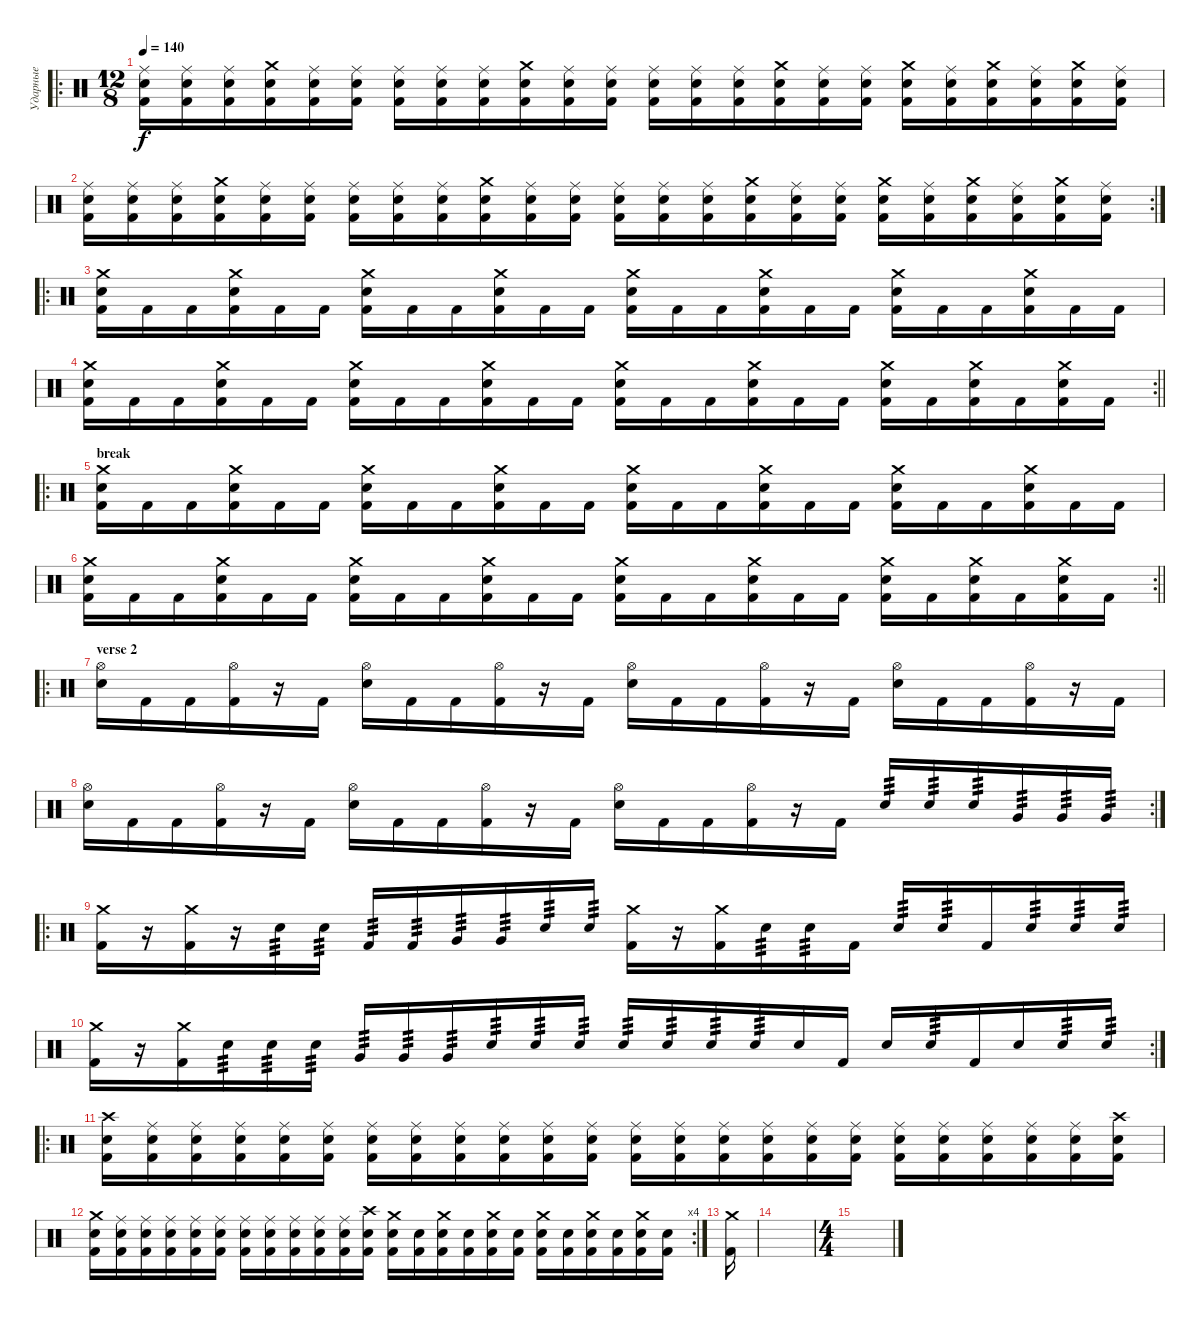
\track ("Ударные" "Ударные") {instrument percussion}
\staff {score}
\articulation defaults
\ro
\ts (12 8)
\tempo 140
\clef neutral
\ks c
("Ride (middle)" "Electric Snare (hit)" "Kick (hit) 2").16{dy f} ("Ride (middle)" "Electric Snare (hit)" "Kick (hit) 2").16 ("Ride (middle)" "Electric Snare (hit)" "Kick (hit) 2").16 ("Crash medium (hit)" "Electric Snare (hit)" "Kick (hit) 2").16 ("Ride (middle)" "Electric Snare (hit)" "Kick (hit) 2").16 ("Ride (middle)" "Electric Snare (hit)" "Kick (hit) 2").16 ("Ride (middle)" "Electric Snare (hit)" "Kick (hit) 2").16 ("Ride (middle)" "Electric Snare (hit)" "Kick (hit) 2").16 ("Ride (middle)" "Electric Snare (hit)" "Kick (hit) 2").16 ("Crash medium (hit)" "Electric Snare (hit)" "Kick (hit) 2").16 ("Ride (middle)" "Electric Snare (hit)" "Kick (hit) 2").16 ("Ride (middle)" "Electric Snare (hit)" "Kick (hit) 2").16 ("Ride (middle)" "Electric Snare (hit)" "Kick (hit) 2").16 ("Ride (middle)" "Electric Snare (hit)" "Kick (hit) 2").16 ("Ride (middle)" "Electric Snare (hit)" "Kick (hit) 2").16 ("Crash medium (hit)" "Electric Snare (hit)" "Kick (hit) 2").16 ("Ride (middle)" "Electric Snare (hit)" "Kick (hit) 2").16 ("Ride (middle)" "Electric Snare (hit)" "Kick (hit) 2").16 ("Crash medium (hit)" "Electric Snare (hit)" "Kick (hit) 2").16 ("Ride (middle)" "Electric Snare (hit)" "Kick (hit) 2").16 ("Crash medium (hit)" "Electric Snare (hit)" "Kick (hit) 2").16 ("Ride (middle)" "Electric Snare (hit)" "Kick (hit) 2").16 ("Crash medium (hit)" "Electric Snare (hit)" "Kick (hit) 2").16 ("Ride (middle)" "Electric Snare (hit)" "Kick (hit) 2").16 |
\rc 2
("Ride (middle)" "Electric Snare (hit)" "Kick (hit) 2").16 ("Ride (middle)" "Electric Snare (hit)" "Kick (hit) 2").16 ("Ride (middle)" "Electric Snare (hit)" "Kick (hit) 2").16 ("Crash medium (hit)" "Electric Snare (hit)" "Kick (hit) 2").16 ("Ride (middle)" "Electric Snare (hit)" "Kick (hit) 2").16 ("Ride (middle)" "Electric Snare (hit)" "Kick (hit) 2").16 ("Ride (middle)" "Electric Snare (hit)" "Kick (hit) 2").16 ("Ride (middle)" "Electric Snare (hit)" "Kick (hit) 2").16 ("Ride (middle)" "Electric Snare (hit)" "Kick (hit) 2").16 ("Crash medium (hit)" "Electric Snare (hit)" "Kick (hit) 2").16 ("Ride (middle)" "Electric Snare (hit)" "Kick (hit) 2").16 ("Ride (middle)" "Electric Snare (hit)" "Kick (hit) 2").16 ("Ride (middle)" "Electric Snare (hit)" "Kick (hit) 2").16 ("Ride (middle)" "Electric Snare (hit)" "Kick (hit) 2").16 ("Ride (middle)" "Electric Snare (hit)" "Kick (hit) 2").16 ("Crash medium (hit)" "Electric Snare (hit)" "Kick (hit) 2").16 ("Ride (middle)" "Electric Snare (hit)" "Kick (hit) 2").16 ("Ride (middle)" "Electric Snare (hit)" "Kick (hit) 2").16 ("Crash medium (hit)" "Electric Snare (hit)" "Kick (hit) 2").16 ("Ride (middle)" "Electric Snare (hit)" "Kick (hit) 2").16 ("Crash medium (hit)" "Electric Snare (hit)" "Kick (hit) 2").16 ("Ride (middle)" "Electric Snare (hit)" "Kick (hit) 2").16 ("Crash medium (hit)" "Electric Snare (hit)" "Kick (hit) 2").16 ("Ride (middle)" "Electric Snare (hit)" "Kick (hit) 2").16 |
\ro
("Crash medium (hit)" "Electric Snare (hit)" "Kick (hit) 2").16 "Kick (hit) 2".16 "Kick (hit) 2".16 ("Crash medium (hit)" "Electric Snare (hit)" "Kick (hit) 2").16 "Kick (hit) 2".16 "Kick (hit) 2".16 ("Crash medium (hit)" "Electric Snare (hit)" "Kick (hit) 2").16 "Kick (hit) 2".16 "Kick (hit) 2".16 ("Crash medium (hit)" "Electric Snare (hit)" "Kick (hit) 2").16 "Kick (hit) 2".16 "Kick (hit) 2".16 ("Crash medium (hit)" "Electric Snare (hit)" "Kick (hit) 2").16 "Kick (hit) 2".16 "Kick (hit) 2".16 ("Crash medium (hit)" "Electric Snare (hit)" "Kick (hit) 2").16 "Kick (hit) 2".16 "Kick (hit) 2".16 ("Crash medium (hit)" "Electric Snare (hit)" "Kick (hit) 2").16 "Kick (hit) 2".16 "Kick (hit) 2".16 ("Crash medium (hit)" "Electric Snare (hit)" "Kick (hit) 2").16 "Kick (hit) 2".16 "Kick (hit) 2".16 |
\rc 2
\barLineRight lightlight
("Crash medium (hit)" "Electric Snare (hit)" "Kick (hit) 2").16 "Kick (hit) 2".16 "Kick (hit) 2".16 ("Crash medium (hit)" "Electric Snare (hit)" "Kick (hit) 2").16 "Kick (hit) 2".16 "Kick (hit) 2".16 ("Crash medium (hit)" "Electric Snare (hit)" "Kick (hit) 2").16 "Kick (hit) 2".16 "Kick (hit) 2".16 ("Crash medium (hit)" "Electric Snare (hit)" "Kick (hit) 2").16 "Kick (hit) 2".16 "Kick (hit) 2".16 ("Crash medium (hit)" "Electric Snare (hit)" "Kick (hit) 2").16 "Kick (hit) 2".16 "Kick (hit) 2".16 ("Crash medium (hit)" "Electric Snare (hit)" "Kick (hit) 2").16 "Kick (hit) 2".16 "Kick (hit) 2".16 ("Crash medium (hit)" "Electric Snare (hit)" "Kick (hit) 2").16 "Kick (hit) 2".16 ("Crash medium (hit)" "Electric Snare (hit)" "Kick (hit) 2").16 "Kick (hit) 2".16 ("Crash medium (hit)" "Electric Snare (hit)" "Kick (hit) 2").16 "Kick (hit) 2".16 |
\ro
\section ("" "break")
("Crash medium (hit)" "Electric Snare (hit)" "Kick (hit) 2").16 "Kick (hit) 2".16 "Kick (hit) 2".16 ("Crash medium (hit)" "Electric Snare (hit)" "Kick (hit) 2").16 "Kick (hit) 2".16 "Kick (hit) 2".16 ("Crash medium (hit)" "Electric Snare (hit)" "Kick (hit) 2").16 "Kick (hit) 2".16 "Kick (hit) 2".16 ("Crash medium (hit)" "Electric Snare (hit)" "Kick (hit) 2").16 "Kick (hit) 2".16 "Kick (hit) 2".16 ("Crash medium (hit)" "Electric Snare (hit)" "Kick (hit) 2").16 "Kick (hit) 2".16 "Kick (hit) 2".16 ("Crash medium (hit)" "Electric Snare (hit)" "Kick (hit) 2").16 "Kick (hit) 2".16 "Kick (hit) 2".16 ("Crash medium (hit)" "Electric Snare (hit)" "Kick (hit) 2").16 "Kick (hit) 2".16 "Kick (hit) 2".16 ("Crash medium (hit)" "Electric Snare (hit)" "Kick (hit) 2").16 "Kick (hit) 2".16 "Kick (hit) 2".16 |
\rc 2
\barLineRight lightlight
("Crash medium (hit)" "Electric Snare (hit)" "Kick (hit) 2").16 "Kick (hit) 2".16 "Kick (hit) 2".16 ("Crash medium (hit)" "Electric Snare (hit)" "Kick (hit) 2").16 "Kick (hit) 2".16 "Kick (hit) 2".16 ("Crash medium (hit)" "Electric Snare (hit)" "Kick (hit) 2").16 "Kick (hit) 2".16 "Kick (hit) 2".16 ("Crash medium (hit)" "Electric Snare (hit)" "Kick (hit) 2").16 "Kick (hit) 2".16 "Kick (hit) 2".16 ("Crash medium (hit)" "Electric Snare (hit)" "Kick (hit) 2").16 "Kick (hit) 2".16 "Kick (hit) 2".16 ("Crash medium (hit)" "Electric Snare (hit)" "Kick (hit) 2").16 "Kick (hit) 2".16 "Kick (hit) 2".16 ("Crash medium (hit)" "Electric Snare (hit)" "Kick (hit) 2").16 "Kick (hit) 2".16 ("Crash medium (hit)" "Electric Snare (hit)" "Kick (hit) 2").16 "Kick (hit) 2".16 ("Crash medium (hit)" "Electric Snare (hit)" "Kick (hit) 2").16 "Kick (hit) 2".16 |
\ro
\section ("" "verse 2")
("Hi-Hat (open)" "Electric Snare (hit)").16 "Kick (hit) 2".16 "Kick (hit) 2".16 ("Hi-Hat (open)" "Kick (hit) 2").16 r.16 "Kick (hit) 2".16 ("Hi-Hat (open)" "Electric Snare (hit)").16 "Kick (hit) 2".16 "Kick (hit) 2".16 ("Hi-Hat (open)" "Kick (hit) 2").16 r.16 "Kick (hit) 2".16 ("Hi-Hat (open)" "Electric Snare (hit)").16 "Kick (hit) 2".16 "Kick (hit) 2".16 ("Hi-Hat (open)" "Kick (hit) 2").16 r.16 "Kick (hit) 2".16 ("Hi-Hat (open)" "Electric Snare (hit)").16 "Kick (hit) 2".16 "Kick (hit) 2".16 ("Hi-Hat (open)" "Kick (hit) 2").16 r.16 "Kick (hit) 2".16 |
\rc 2
("Hi-Hat (open)" "Electric Snare (hit)").16 "Kick (hit) 2".16 "Kick (hit) 2".16 ("Hi-Hat (open)" "Kick (hit) 2").16 r.16 "Kick (hit) 2".16 ("Hi-Hat (open)" "Electric Snare (hit)").16 "Kick (hit) 2".16 "Kick (hit) 2".16 ("Hi-Hat (open)" "Kick (hit) 2").16 r.16 "Kick (hit) 2".16 ("Hi-Hat (open)" "Electric Snare (hit)").16 "Kick (hit) 2".16 "Kick (hit) 2".16 ("Hi-Hat (open)" "Kick (hit) 2").16 r.16 "Kick (hit) 2".16 "Electric Snare (hit)".16{tp 3} "Electric Snare (hit)".16{tp 3} "Electric Snare (hit)".16{tp 3} "Very Low Tom (hit)".16{tp 3} "Very Low Tom (hit)".16{tp 3} "Very Low Tom (hit)".16{tp 3} |
\ro
("Crash medium (hit)" "Kick (hit) 2").16 r.16 ("Crash medium (hit)" "Kick (hit) 2").16 r.16 "Electric Snare (hit)".16{tp 3} "Electric Snare (hit)".16{tp 3} "Kick (hit) 2".16{tp 3} "Kick (hit) 2".16{tp 3} "Very Low Tom (hit)".16{tp 3} "Very Low Tom (hit)".16{tp 3} "Electric Snare (hit)".16{tp 3} "Electric Snare (hit)".16{tp 3} ("Crash medium (hit)" "Kick (hit) 2").16 r.16 ("Crash medium (hit)" "Kick (hit) 2").16 "Electric Snare (hit)".16{tp 3} "Electric Snare (hit)".16{tp 3} "Kick (hit) 2".16 "Electric Snare (hit)".16{tp 3} "Electric Snare (hit)".16{tp 3} "Kick (hit) 2".16 "Electric Snare (hit)".16{tp 3} "Electric Snare (hit)".16{tp 3} "Electric Snare (hit)".16{tp 3} |
\rc 2
("Crash medium (hit)" "Kick (hit) 2").16 r.16 ("Crash medium (hit)" "Kick (hit) 2").16 "Electric Snare (hit)".16{tp 3} "Electric Snare (hit)".16{tp 3} "Electric Snare (hit)".16{tp 3} "Very Low Tom (hit)".16{tp 3} "Very Low Tom (hit)".16{tp 3} "Very Low Tom (hit)".16{tp 3} "Electric Snare (hit)".16{tp 3} "Electric Snare (hit)".16{tp 3} "Electric Snare (hit)".16{tp 3} "Electric Snare (hit)".16{tp 3} "Electric Snare (hit)".16{tp 3} "Electric Snare (hit)".16{tp 3} "Electric Snare (hit)".16{tp 3} "Electric Snare (hit)".16 "Kick (hit) 2".16 "Electric Snare (hit)".16 "Electric Snare (hit)".16{tp 3} "Kick (hit) 2".16 "Electric Snare (hit)".16 "Electric Snare (hit)".16{tp 3} "Electric Snare (hit)".16{tp 3} |
\ro
("Crash high (hit)" "Electric Snare (hit)" "Kick (hit) 2").16 ("Ride (middle)" "Electric Snare (hit)" "Kick (hit) 2").16 ("Ride (middle)" "Electric Snare (hit)" "Kick (hit) 2").16 ("Ride (middle)" "Electric Snare (hit)" "Kick (hit) 2").16 ("Ride (middle)" "Electric Snare (hit)" "Kick (hit) 2").16 ("Ride (middle)" "Electric Snare (hit)" "Kick (hit) 2").16 ("Ride (middle)" "Electric Snare (hit)" "Kick (hit) 2").16 ("Ride (middle)" "Electric Snare (hit)" "Kick (hit) 2").16 ("Ride (middle)" "Electric Snare (hit)" "Kick (hit) 2").16 ("Ride (middle)" "Electric Snare (hit)" "Kick (hit) 2").16 ("Ride (middle)" "Electric Snare (hit)" "Kick (hit) 2").16 ("Ride (middle)" "Electric Snare (hit)" "Kick (hit) 2").16 ("Ride (middle)" "Electric Snare (hit)" "Kick (hit) 2").16 ("Ride (middle)" "Electric Snare (hit)" "Kick (hit) 2").16 ("Ride (middle)" "Electric Snare (hit)" "Kick (hit) 2").16 ("Ride (middle)" "Electric Snare (hit)" "Kick (hit) 2").16 ("Ride (middle)" "Electric Snare (hit)" "Kick (hit) 2").16 ("Ride (middle)" "Electric Snare (hit)" "Kick (hit) 2").16 ("Ride (middle)" "Electric Snare (hit)" "Kick (hit) 2").16 ("Ride (middle)" "Electric Snare (hit)" "Kick (hit) 2").16 ("Ride (middle)" "Electric Snare (hit)" "Kick (hit) 2").16 ("Ride (middle)" "Electric Snare (hit)" "Kick (hit) 2").16 ("Ride (middle)" "Electric Snare (hit)" "Kick (hit) 2").16 ("Crash high (hit)" "Electric Snare (hit)" "Kick (hit) 2").16 |
\rc 4
("Crash medium (hit)" "Electric Snare (hit)" "Kick (hit) 2").16 ("Ride (middle)" "Electric Snare (hit)" "Kick (hit) 2").16 ("Ride (middle)" "Electric Snare (hit)" "Kick (hit) 2").16 ("Ride (middle)" "Electric Snare (hit)" "Kick (hit) 2").16 ("Ride (middle)" "Electric Snare (hit)" "Kick (hit) 2").16 ("Ride (middle)" "Electric Snare (hit)" "Kick (hit) 2").16 ("Ride (middle)" "Electric Snare (hit)" "Kick (hit) 2").16 ("Ride (middle)" "Electric Snare (hit)" "Kick (hit) 2").16 ("Ride (middle)" "Electric Snare (hit)" "Kick (hit) 2").16 ("Ride (middle)" "Electric Snare (hit)" "Kick (hit) 2").16 ("Ride (middle)" "Electric Snare (hit)" "Kick (hit) 2").16 ("Crash high (hit)" "Electric Snare (hit)" "Kick (hit) 2").16 ("Crash medium (hit)" "Electric Snare (hit)" "Kick (hit) 2").16 ("Electric Snare (hit)" "Kick (hit) 2").16 ("Crash medium (hit)" "Electric Snare (hit)" "Kick (hit) 2").16 ("Electric Snare (hit)" "Kick (hit) 2").16 ("Crash medium (hit)" "Electric Snare (hit)" "Kick (hit) 2").16 ("Electric Snare (hit)" "Kick (hit) 2").16 ("Crash medium (hit)" "Electric Snare (hit)" "Kick (hit) 2").16 ("Electric Snare (hit)" "Kick (hit) 2").16 ("Crash medium (hit)" "Electric Snare (hit)" "Kick (hit) 2").16 ("Electric Snare (hit)" "Kick (hit) 2").16 ("Crash medium (hit)" "Electric Snare (hit)" "Kick (hit) 2").16 ("Electric Snare (hit)" "Kick (hit) 2").16 |
("Crash medium (hit)" "Kick (hit) 2").16 |
|
\ts (4 4)
